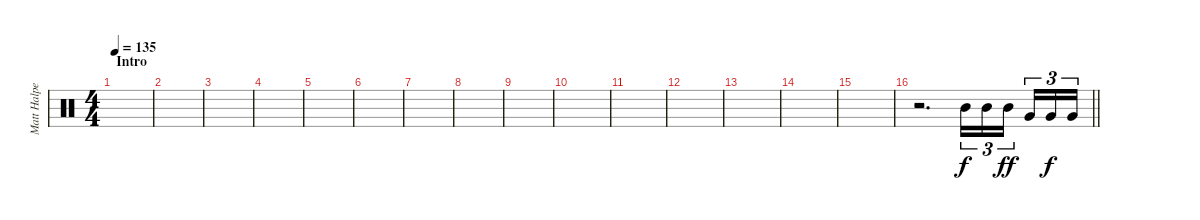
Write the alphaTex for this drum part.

\track ("Matt Halpern - Drums" "Matt Halpe") {instrument percussion}
\staff {score}
\articulation defaults
\ts (4 4)
\section ("" "Intro")
\tempo 135
\clef neutral
\ks c
|
|
|
|
|
|
|
|
|
|
|
|
|
|
|
\barLineRight lightlight
r.2{d} "Mid Tom (hit)".16{tu (3 2)} "Mid Tom (hit)".16{tu (3 2)} "Mid Tom (hit)".16{tu (3 2) dy ff beam splitsecondary} "Very Low Tom (hit)".16{tu (3 2)} "Very Low Tom (hit)".16{tu (3 2) dy f} "Very Low Tom (hit)".16{tu (3 2)}
